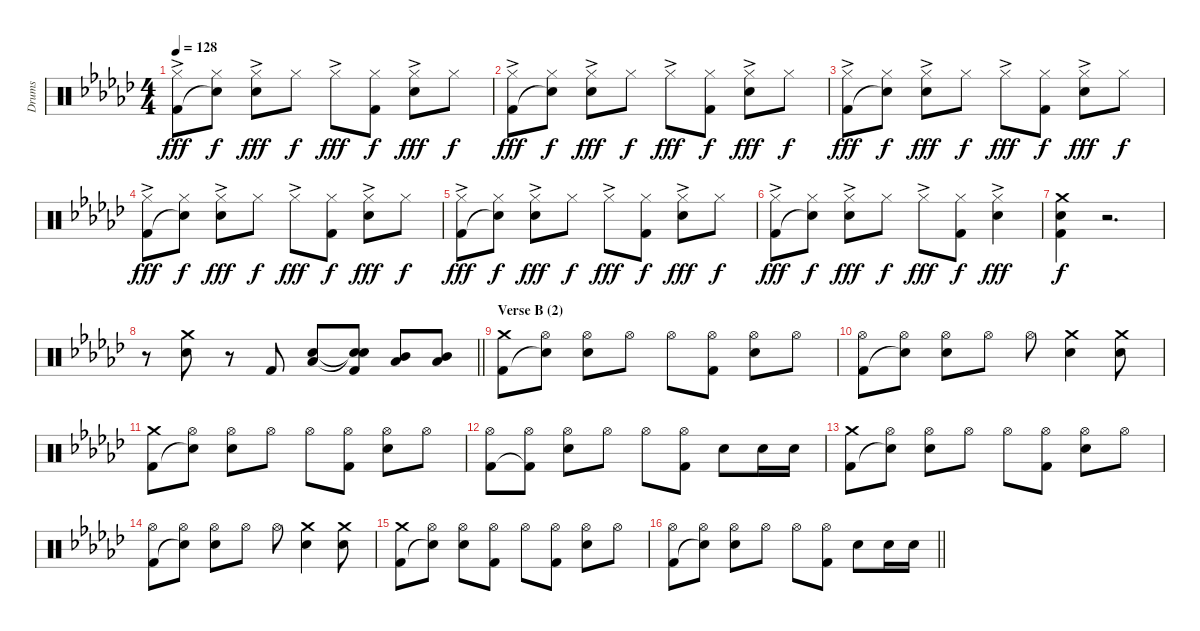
\track ("Drums" "Drums") {instrument percussion}
\staff {score}
\articulation defaults
\ts (4 4)
\tempo 128
\clef neutral
\ks gb
("Hi-Hat (closed)"{ac} "Kick (hit) 2").8{dy fff} ("Hi-Hat (closed)" "Snare (hit)"{t}).8{dy f} ("Hi-Hat (closed)"{ac} "Electric Snare (hit)").8{dy fff} "Hi-Hat (closed)".8{dy f} "Hi-Hat (closed)"{ac}.8{dy fff} ("Hi-Hat (closed)" "Kick (hit) 2").8{dy f} ("Hi-Hat (closed)"{ac} "Electric Snare (hit)").8{dy fff} "Hi-Hat (closed)".8{dy f} |
("Hi-Hat (closed)"{ac} "Kick (hit) 2").8{dy fff} ("Hi-Hat (closed)" "Snare (hit)"{t}).8{dy f} ("Hi-Hat (closed)"{ac} "Electric Snare (hit)").8{dy fff} "Hi-Hat (closed)".8{dy f} "Hi-Hat (closed)"{ac}.8{dy fff} ("Hi-Hat (closed)" "Kick (hit) 2").8{dy f} ("Hi-Hat (closed)"{ac} "Electric Snare (hit)").8{dy fff} "Hi-Hat (closed)".8{dy f} |
("Hi-Hat (closed)"{ac} "Kick (hit) 2").8{dy fff} ("Hi-Hat (closed)" "Snare (hit)"{t}).8{dy f} ("Hi-Hat (closed)"{ac} "Electric Snare (hit)").8{dy fff} "Hi-Hat (closed)".8{dy f} "Hi-Hat (closed)"{ac}.8{dy fff} ("Hi-Hat (closed)" "Kick (hit) 2").8{dy f} ("Hi-Hat (closed)"{ac} "Electric Snare (hit)").8{dy fff} "Hi-Hat (closed)".8{dy f} |
("Hi-Hat (closed)"{ac} "Kick (hit) 2").8{dy fff} ("Hi-Hat (closed)" "Snare (hit)"{t}).8{dy f} ("Hi-Hat (closed)"{ac} "Electric Snare (hit)").8{dy fff} "Hi-Hat (closed)".8{dy f} "Hi-Hat (closed)"{ac}.8{dy fff} ("Hi-Hat (closed)" "Kick (hit) 2").8{dy f} ("Hi-Hat (closed)"{ac} "Electric Snare (hit)").8{dy fff} "Hi-Hat (closed)".8{dy f} |
("Hi-Hat (closed)"{ac} "Kick (hit) 2").8{dy fff} ("Hi-Hat (closed)" "Snare (hit)"{t}).8{dy f} ("Hi-Hat (closed)"{ac} "Electric Snare (hit)").8{dy fff} "Hi-Hat (closed)".8{dy f} "Hi-Hat (closed)"{ac}.8{dy fff} ("Hi-Hat (closed)" "Kick (hit) 2").8{dy f} ("Hi-Hat (closed)"{ac} "Electric Snare (hit)").8{dy fff} "Hi-Hat (closed)".8{dy f} |
("Hi-Hat (closed)"{ac} "Kick (hit) 2").8{dy fff} ("Hi-Hat (closed)" "Snare (hit)"{t}).8{dy f} ("Hi-Hat (closed)"{ac} "Electric Snare (hit)").8{dy fff} "Hi-Hat (closed)".8{dy f} "Hi-Hat (closed)"{ac}.8{dy fff} ("Hi-Hat (closed)" "Kick (hit) 2").8{dy f} ("Hi-Hat (closed)"{ac} "Electric Snare (hit)").4{dy fff} |
("Crash medium (hit)" "Electric Snare (hit)" "Kick (hit) 2").4{dy f} r.2{d} |
\barLineRight lightlight
r.8 ("Crash medium (hit)" "Electric Snare (hit)").8 r.8 "Kick (hit) 2".8 ("Electric Snare (hit)" "Low Floor Tom (hit)").8 ("Snare (hit)"{t} "Snare (hit)"{t} "Kick (hit) 2").8 ("Mid Tom (hit)" "Low Floor Tom (hit)").8 ("Mid Tom (hit)" "Low Floor Tom (hit)").8 |
\section ("" "Verse B (2)")
("Crash medium (hit)" "Kick (hit) 2").8 ("Hi-Hat (open)" "Snare (hit)"{t}).8 ("Hi-Hat (open)" "Electric Snare (hit)").8 "Hi-Hat (open)".8 "Hi-Hat (open)".8 ("Hi-Hat (open)" "Kick (hit) 2").8 ("Hi-Hat (open)" "Electric Snare (hit)").8 "Hi-Hat (open)".8 |
("Hi-Hat (open)" "Kick (hit) 2").8 ("Hi-Hat (open)" "Snare (hit)"{t}).8 ("Hi-Hat (open)" "Electric Snare (hit)").8 "Hi-Hat (open)".8 "Hi-Hat (open)".8 ("Crash medium (hit)" "Electric Snare (hit)").4 ("Crash medium (hit)" "Electric Snare (hit)").8 |
("Crash medium (hit)" "Kick (hit) 2").8 ("Hi-Hat (open)" "Snare (hit)"{t}).8 ("Hi-Hat (open)" "Electric Snare (hit)").8 "Hi-Hat (open)".8 "Hi-Hat (open)".8 ("Hi-Hat (open)" "Kick (hit) 2").8 ("Hi-Hat (open)" "Electric Snare (hit)").8 "Hi-Hat (open)".8 |
("Hi-Hat (open)" "Kick (hit) 2").8 ("Hi-Hat (open)" "Kick (hit) 2"{t}).8 ("Hi-Hat (open)" "Electric Snare (hit)").8 "Hi-Hat (open)".8 "Hi-Hat (open)".8 ("Hi-Hat (open)" "Kick (hit) 2").8 "Electric Snare (hit)".8 "Electric Snare (hit)".16 "Electric Snare (hit)".16 |
("Crash medium (hit)" "Kick (hit) 2").8 ("Hi-Hat (open)" "Snare (hit)"{t}).8 ("Hi-Hat (open)" "Electric Snare (hit)").8 "Hi-Hat (open)".8 "Hi-Hat (open)".8 ("Hi-Hat (open)" "Kick (hit) 2").8 ("Hi-Hat (open)" "Electric Snare (hit)").8 "Hi-Hat (open)".8 |
("Hi-Hat (open)" "Kick (hit) 2").8 ("Hi-Hat (open)" "Snare (hit)"{t}).8 ("Hi-Hat (open)" "Electric Snare (hit)").8 "Hi-Hat (open)".8 "Hi-Hat (open)".8 ("Crash medium (hit)" "Electric Snare (hit)").4 ("Crash medium (hit)" "Electric Snare (hit)").8 |
("Crash medium (hit)" "Kick (hit) 2").8 ("Hi-Hat (open)" "Snare (hit)"{t}).8 ("Hi-Hat (open)" "Electric Snare (hit)").8 ("Hi-Hat (open)" "Kick (hit) 2").8 "Hi-Hat (open)".8 ("Hi-Hat (open)" "Kick (hit) 2").8 ("Hi-Hat (open)" "Electric Snare (hit)").8 "Hi-Hat (open)".8 |
\barLineRight lightlight
("Hi-Hat (open)" "Kick (hit) 2").8 ("Hi-Hat (open)" "Snare (hit)"{t}).8 ("Hi-Hat (open)" "Electric Snare (hit)").8 "Hi-Hat (open)".8 "Hi-Hat (open)".8 ("Hi-Hat (open)" "Kick (hit) 2").8 "Electric Snare (hit)".8 "Electric Snare (hit)".16 "Electric Snare (hit)".16
